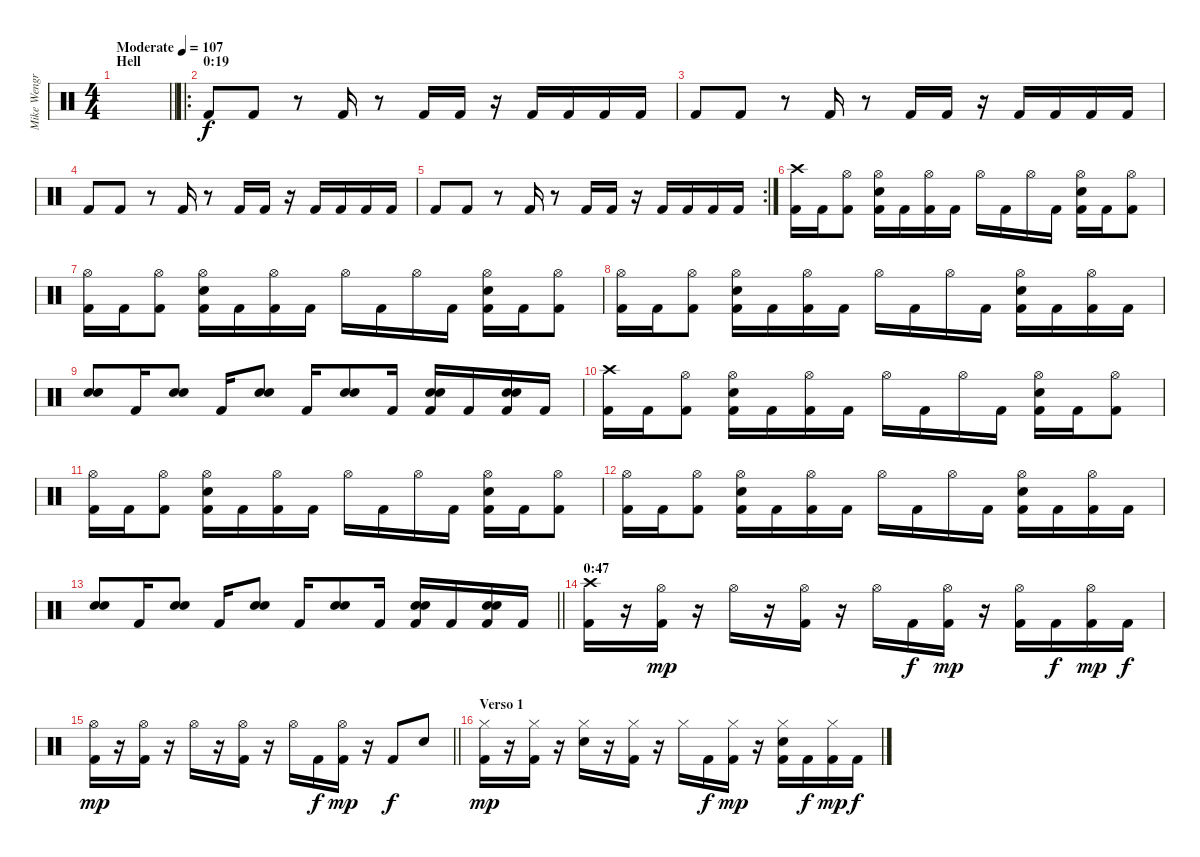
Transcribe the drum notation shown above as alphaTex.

\track ("Mike Wengren" "Mike Wengr") {instrument percussion}
\staff {score}
\articulation defaults
\ts (4 4)
\section ("" "Hell")
\tempo (107 "Moderate")
\clef neutral
\barLineRight lightlight
\ks c
|
\ro
\section ("" "0:19")
"Kick (hit) 2".8 "Kick (hit) 2".8 r.8 "Kick (hit) 2".16 r.8 "Kick (hit) 2".16 "Kick (hit) 2".16 r.16 "Kick (hit) 2".16 "Kick (hit) 2".16 "Kick (hit) 2".16 "Kick (hit) 2".16 |
"Kick (hit) 2".8 "Kick (hit) 2".8 r.8 "Kick (hit) 2".16 r.8 "Kick (hit) 2".16 "Kick (hit) 2".16 r.16 "Kick (hit) 2".16 "Kick (hit) 2".16 "Kick (hit) 2".16 "Kick (hit) 2".16 |
"Kick (hit) 2".8 "Kick (hit) 2".8 r.8 "Kick (hit) 2".16 r.8 "Kick (hit) 2".16 "Kick (hit) 2".16 r.16 "Kick (hit) 2".16 "Kick (hit) 2".16 "Kick (hit) 2".16 "Kick (hit) 2".16 |
\rc 2 "Kick (hit) 2".8 "Kick (hit) 2".8
r.8 "Kick (hit) 2".16 r.8 "Kick (hit) 2".16 "Kick (hit) 2".16 r.16 "Kick (hit) 2".16 "Kick (hit) 2".16 "Kick (hit) 2".16 "Kick (hit) 2".16 |
("Crash high (hit)" "Kick (hit) 2").16{dy f} "Kick (hit) 2".16 ("Hi-Hat (open)" "Kick (hit) 2").8 ("Hi-Hat (open)" "Snare (hit) 2" "Kick (hit) 2").16 "Kick (hit) 2".16 ("Hi-Hat (open)" "Kick (hit) 2").16 "Kick (hit) 2".16 "Hi-Hat (open)".16 "Kick (hit) 2".16 "Hi-Hat (open)".16 "Kick (hit) 2".16 ("Hi-Hat (open)" "Snare (hit) 2" "Kick (hit) 2").16 "Kick (hit) 2".16 ("Hi-Hat (open)" "Kick (hit) 2").8 |
("Hi-Hat (open)" "Kick (hit) 2").16 "Kick (hit) 2".16 ("Hi-Hat (open)" "Kick (hit) 2").8 ("Hi-Hat (open)" "Snare (hit) 2" "Kick (hit) 2").16 "Kick (hit) 2".16 ("Hi-Hat (open)" "Kick (hit) 2").16 "Kick (hit) 2".16 "Hi-Hat (open)".16 "Kick (hit) 2".16 "Hi-Hat (open)".16 "Kick (hit) 2".16 ("Hi-Hat (open)" "Snare (hit) 2" "Kick (hit) 2").16 "Kick (hit) 2".16 ("Hi-Hat (open)" "Kick (hit) 2").8 |
("Hi-Hat (open)" "Kick (hit) 2").16 "Kick (hit) 2".16 ("Hi-Hat (open)" "Kick (hit) 2").8 ("Hi-Hat (open)" "Snare (hit) 2" "Kick (hit) 2").16 "Kick (hit) 2".16 ("Hi-Hat (open)" "Kick (hit) 2").16 "Kick (hit) 2".16 "Hi-Hat (open)".16 "Kick (hit) 2".16 "Hi-Hat (open)".16 "Kick (hit) 2".16 ("Hi-Hat (open)" "Snare (hit) 2" "Kick (hit) 2").16 "Kick (hit) 2".16 ("Hi-Hat (open)" "Kick (hit) 2").16 "Kick (hit) 2".16 |
("Snare (hit) 2" "Snare (hit) 2").8 "Kick (hit) 2".16 ("Snare (hit) 2" "Snare (hit) 2").8 "Kick (hit) 2".16 ("Snare (hit) 2" "Snare (hit) 2").8 "Kick (hit) 2".16 ("Snare (hit) 2" "Snare (hit) 2").8 "Kick (hit) 2".16 ("Snare (hit) 2" "Snare (hit) 2" "Kick (hit) 2").16 "Kick (hit) 2".16 ("Snare (hit) 2" "Snare (hit) 2" "Kick (hit) 2").16 "Kick (hit) 2".16 |
("Crash high (hit)" "Kick (hit) 2").16 "Kick (hit) 2".16 ("Hi-Hat (open)" "Kick (hit) 2").8 ("Hi-Hat (open)" "Snare (hit) 2" "Kick (hit) 2").16 "Kick (hit) 2".16 ("Hi-Hat (open)" "Kick (hit) 2").16 "Kick (hit) 2".16 "Hi-Hat (open)".16 "Kick (hit) 2".16 "Hi-Hat (open)".16 "Kick (hit) 2".16 ("Hi-Hat (open)" "Snare (hit) 2" "Kick (hit) 2").16 "Kick (hit) 2".16 ("Hi-Hat (open)" "Kick (hit) 2").8 |
("Hi-Hat (open)" "Kick (hit) 2").16 "Kick (hit) 2".16 ("Hi-Hat (open)" "Kick (hit) 2").8 ("Hi-Hat (open)" "Snare (hit) 2" "Kick (hit) 2").16 "Kick (hit) 2".16 ("Hi-Hat (open)" "Kick (hit) 2").16 "Kick (hit) 2".16 "Hi-Hat (open)".16 "Kick (hit) 2".16 "Hi-Hat (open)".16 "Kick (hit) 2".16 ("Hi-Hat (open)" "Snare (hit) 2" "Kick (hit) 2").16 "Kick (hit) 2".16 ("Hi-Hat (open)" "Kick (hit) 2").8 |
("Hi-Hat (open)" "Kick (hit) 2").16 "Kick (hit) 2".16 ("Hi-Hat (open)" "Kick (hit) 2").8 ("Hi-Hat (open)" "Snare (hit) 2" "Kick (hit) 2").16 "Kick (hit) 2".16 ("Hi-Hat (open)" "Kick (hit) 2").16 "Kick (hit) 2".16 "Hi-Hat (open)".16 "Kick (hit) 2".16 "Hi-Hat (open)".16 "Kick (hit) 2".16 ("Hi-Hat (open)" "Snare (hit) 2" "Kick (hit) 2").16 "Kick (hit) 2".16 ("Hi-Hat (open)" "Kick (hit) 2").16 "Kick (hit) 2".16 |
\barLineRight lightlight
("Snare (hit) 2" "Snare (hit) 2").8 "Kick (hit) 2".16 ("Snare (hit) 2" "Snare (hit) 2").8 "Kick (hit) 2".16 ("Snare (hit) 2" "Snare (hit) 2").8 "Kick (hit) 2".16 ("Snare (hit) 2" "Snare (hit) 2").8 "Kick (hit) 2".16 ("Snare (hit) 2" "Snare (hit) 2" "Kick (hit) 2").16 "Kick (hit) 2".16 ("Snare (hit) 2" "Snare (hit) 2" "Kick (hit) 2").16 "Kick (hit) 2".16 |
\section ("" "0:47")
("Crash high (hit)" "Kick (hit) 2").16 r.16 ("Hi-Hat (open)" "Kick (hit) 2").16{dy mp} r.16 "Hi-Hat (open)".16 r.16 ("Hi-Hat (open)" "Kick (hit) 2").16 r.16 "Hi-Hat (open)".16 "Kick (hit) 2".16{dy f} ("Hi-Hat (open)" "Kick (hit) 2").16{dy mp} r.16 ("Hi-Hat (open)" "Kick (hit) 2").16 "Kick (hit) 2".16{dy f} ("Hi-Hat (open)" "Kick (hit) 2").16{dy mp} "Kick (hit) 2".16{dy f} |
\barLineRight lightlight
("Hi-Hat (open)" "Kick (hit) 2").16{dy mp} r.16 ("Hi-Hat (open)" "Kick (hit) 2").16 r.16 "Hi-Hat (open)".16 r.16 ("Hi-Hat (open)" "Kick (hit) 2").16 r.16 "Hi-Hat (open)".16 "Kick (hit) 2".16{dy f} ("Hi-Hat (open)" "Kick (hit) 2").16{dy mp} r.16 "Kick (hit) 2".8{dy f} "Snare (hit) 2".8 |
\section ("" "Verso 1")
("Hi-Hat (closed)" "Kick (hit) 2").16{dy mp} r.16 ("Hi-Hat (closed)" "Kick (hit) 2").16 r.16 ("Hi-Hat (closed)" "Snare (hit) 2").16 r.16 ("Hi-Hat (closed)" "Kick (hit) 2").16 r.16 "Hi-Hat (closed)".16 "Kick (hit) 2".16{dy f} ("Hi-Hat (closed)" "Kick (hit) 2").16{dy mp} r.16 ("Hi-Hat (closed)" "Snare (hit) 2" "Kick (hit) 2").16 "Kick (hit) 2".16{dy f} ("Hi-Hat (closed)" "Kick (hit) 2").16{dy mp} "Kick (hit) 2".16{dy f}
